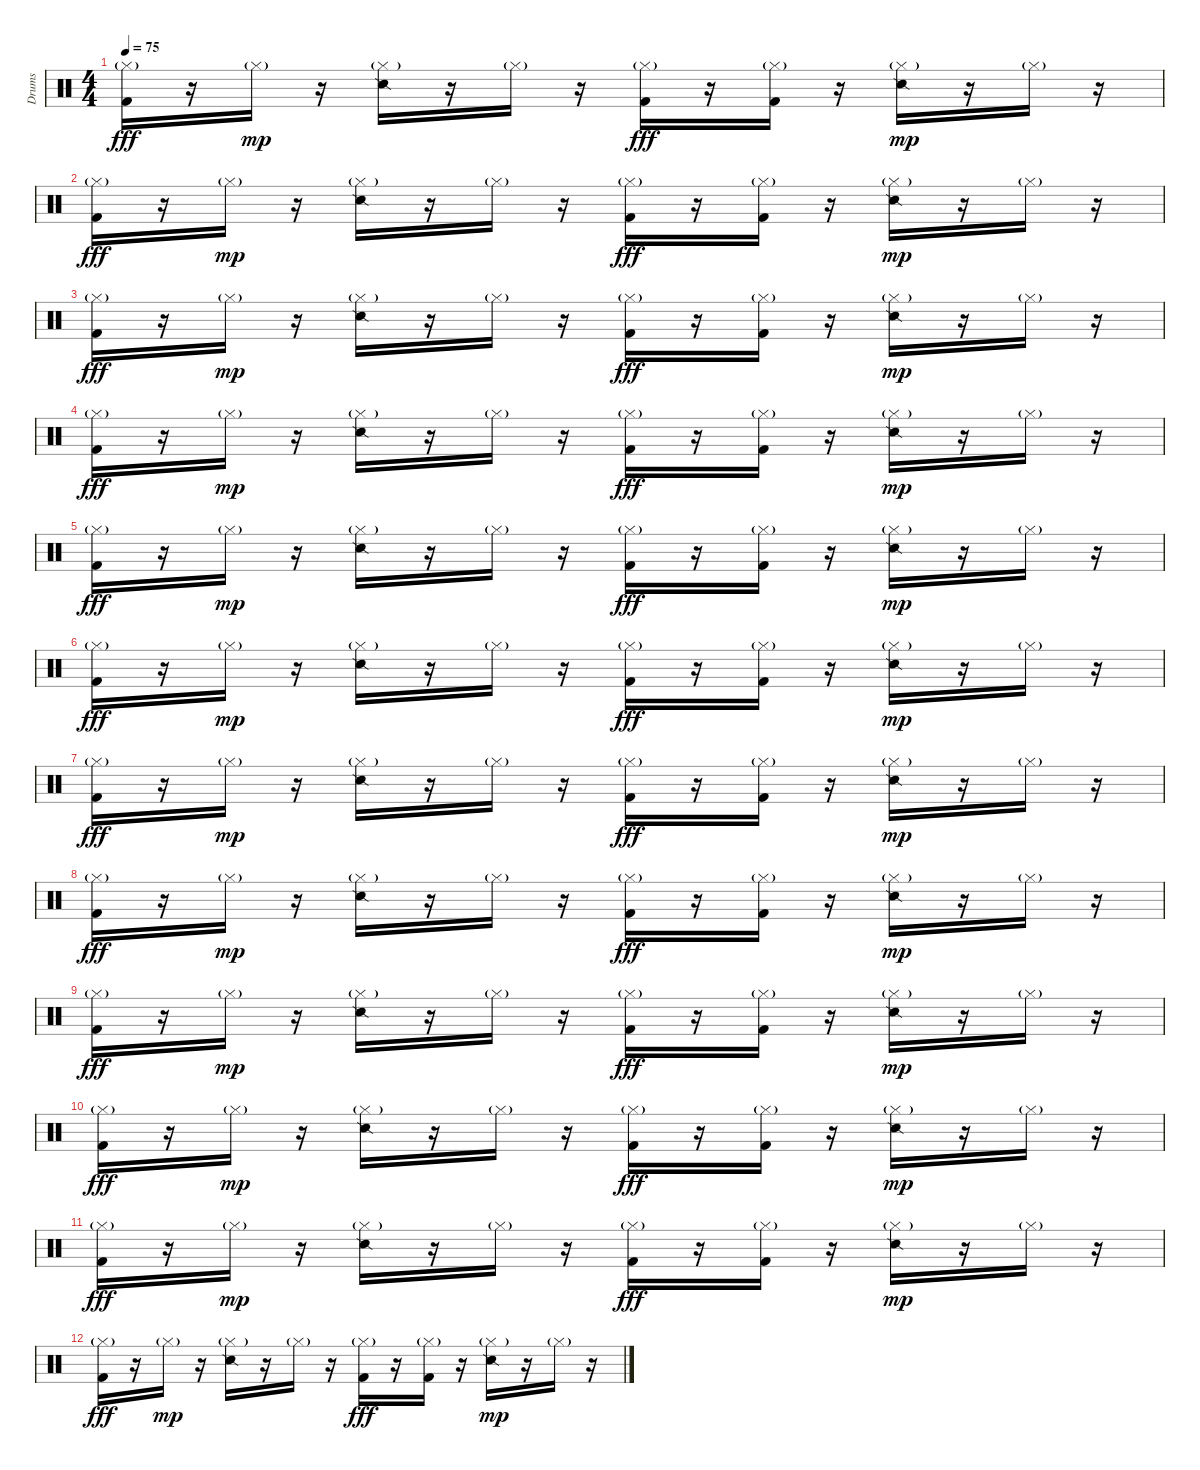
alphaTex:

\track ("Drums" "Drums") {instrument percussion}
\staff {score}
\articulation defaults
\ts (4 4)
\tempo 75
\clef neutral
\ks c
("Hi-Hat (closed)"{g} "Kick (hit) 2").16{dy fff} r.16 "Hi-Hat (closed)"{g}.16{dy mp} r.16 ("Hi-Hat (closed)"{g} "Snare (side stick) 2").16 r.16 "Hi-Hat (closed)"{g}.16 r.16 ("Hi-Hat (closed)"{g} "Kick (hit) 2").16{dy fff} r.16 ("Hi-Hat (closed)"{g} "Kick (hit) 2").16 r.16 ("Hi-Hat (closed)"{g} "Snare (side stick) 2").16{dy mp} r.16 "Hi-Hat (closed)"{g}.16 r.16 |
("Hi-Hat (closed)"{g} "Kick (hit) 2").16{dy fff} r.16 "Hi-Hat (closed)"{g}.16{dy mp} r.16 ("Hi-Hat (closed)"{g} "Snare (side stick) 2").16 r.16 "Hi-Hat (closed)"{g}.16 r.16 ("Hi-Hat (closed)"{g} "Kick (hit) 2").16{dy fff} r.16 ("Hi-Hat (closed)"{g} "Kick (hit) 2").16 r.16 ("Hi-Hat (closed)"{g} "Snare (side stick) 2").16{dy mp} r.16 "Hi-Hat (closed)"{g}.16 r.16 |
("Hi-Hat (closed)"{g} "Kick (hit) 2").16{dy fff} r.16 "Hi-Hat (closed)"{g}.16{dy mp} r.16 ("Hi-Hat (closed)"{g} "Snare (side stick) 2").16 r.16 "Hi-Hat (closed)"{g}.16 r.16 ("Hi-Hat (closed)"{g} "Kick (hit) 2").16{dy fff} r.16 ("Hi-Hat (closed)"{g} "Kick (hit) 2").16 r.16 ("Hi-Hat (closed)"{g} "Snare (side stick) 2").16{dy mp} r.16 "Hi-Hat (closed)"{g}.16 r.16 |
("Hi-Hat (closed)"{g} "Kick (hit) 2").16{dy fff} r.16 "Hi-Hat (closed)"{g}.16{dy mp} r.16 ("Hi-Hat (closed)"{g} "Snare (side stick) 2").16 r.16 "Hi-Hat (closed)"{g}.16 r.16 ("Hi-Hat (closed)"{g} "Kick (hit) 2").16{dy fff} r.16 ("Hi-Hat (closed)"{g} "Kick (hit) 2").16 r.16 ("Hi-Hat (closed)"{g} "Snare (side stick) 2").16{dy mp} r.16 "Hi-Hat (closed)"{g}.16 r.16 |
("Hi-Hat (closed)"{g} "Kick (hit) 2").16{dy fff} r.16 "Hi-Hat (closed)"{g}.16{dy mp} r.16 ("Hi-Hat (closed)"{g} "Snare (side stick) 2").16 r.16 "Hi-Hat (closed)"{g}.16 r.16 ("Hi-Hat (closed)"{g} "Kick (hit) 2").16{dy fff} r.16 ("Hi-Hat (closed)"{g} "Kick (hit) 2").16 r.16 ("Hi-Hat (closed)"{g} "Snare (side stick) 2").16{dy mp} r.16 "Hi-Hat (closed)"{g}.16 r.16 |
("Hi-Hat (closed)"{g} "Kick (hit) 2").16{dy fff} r.16 "Hi-Hat (closed)"{g}.16{dy mp} r.16 ("Hi-Hat (closed)"{g} "Snare (side stick) 2").16 r.16 "Hi-Hat (closed)"{g}.16 r.16 ("Hi-Hat (closed)"{g} "Kick (hit) 2").16{dy fff} r.16 ("Hi-Hat (closed)"{g} "Kick (hit) 2").16 r.16 ("Hi-Hat (closed)"{g} "Snare (side stick) 2").16{dy mp} r.16 "Hi-Hat (closed)"{g}.16 r.16 |
("Hi-Hat (closed)"{g} "Kick (hit) 2").16{dy fff} r.16 "Hi-Hat (closed)"{g}.16{dy mp} r.16 ("Hi-Hat (closed)"{g} "Snare (side stick) 2").16 r.16 "Hi-Hat (closed)"{g}.16 r.16 ("Hi-Hat (closed)"{g} "Kick (hit) 2").16{dy fff} r.16 ("Hi-Hat (closed)"{g} "Kick (hit) 2").16 r.16 ("Hi-Hat (closed)"{g} "Snare (side stick) 2").16{dy mp} r.16 "Hi-Hat (closed)"{g}.16 r.16 |
("Hi-Hat (closed)"{g} "Kick (hit) 2").16{dy fff} r.16 "Hi-Hat (closed)"{g}.16{dy mp} r.16 ("Hi-Hat (closed)"{g} "Snare (side stick) 2").16 r.16 "Hi-Hat (closed)"{g}.16 r.16 ("Hi-Hat (closed)"{g} "Kick (hit) 2").16{dy fff} r.16 ("Hi-Hat (closed)"{g} "Kick (hit) 2").16 r.16 ("Hi-Hat (closed)"{g} "Snare (side stick) 2").16{dy mp} r.16 "Hi-Hat (closed)"{g}.16 r.16 |
("Hi-Hat (closed)"{g} "Kick (hit) 2").16{dy fff} r.16 "Hi-Hat (closed)"{g}.16{dy mp} r.16 ("Hi-Hat (closed)"{g} "Snare (side stick) 2").16 r.16 "Hi-Hat (closed)"{g}.16 r.16 ("Hi-Hat (closed)"{g} "Kick (hit) 2").16{dy fff} r.16 ("Hi-Hat (closed)"{g} "Kick (hit) 2").16 r.16 ("Hi-Hat (closed)"{g} "Snare (side stick) 2").16{dy mp} r.16 "Hi-Hat (closed)"{g}.16 r.16 |
("Hi-Hat (closed)"{g} "Kick (hit) 2").16{dy fff} r.16 "Hi-Hat (closed)"{g}.16{dy mp} r.16 ("Hi-Hat (closed)"{g} "Snare (side stick) 2").16 r.16 "Hi-Hat (closed)"{g}.16 r.16 ("Hi-Hat (closed)"{g} "Kick (hit) 2").16{dy fff} r.16 ("Hi-Hat (closed)"{g} "Kick (hit) 2").16 r.16 ("Hi-Hat (closed)"{g} "Snare (side stick) 2").16{dy mp} r.16 "Hi-Hat (closed)"{g}.16 r.16 |
("Hi-Hat (closed)"{g} "Kick (hit) 2").16{dy fff} r.16 "Hi-Hat (closed)"{g}.16{dy mp} r.16 ("Hi-Hat (closed)"{g} "Snare (side stick) 2").16 r.16 "Hi-Hat (closed)"{g}.16 r.16 ("Hi-Hat (closed)"{g} "Kick (hit) 2").16{dy fff} r.16 ("Hi-Hat (closed)"{g} "Kick (hit) 2").16 r.16 ("Hi-Hat (closed)"{g} "Snare (side stick) 2").16{dy mp} r.16 "Hi-Hat (closed)"{g}.16 r.16 |
("Hi-Hat (closed)"{g} "Kick (hit) 2").16{dy fff} r.16 "Hi-Hat (closed)"{g}.16{dy mp} r.16 ("Hi-Hat (closed)"{g} "Snare (side stick) 2").16 r.16 "Hi-Hat (closed)"{g}.16 r.16 ("Hi-Hat (closed)"{g} "Kick (hit) 2").16{dy fff} r.16 ("Hi-Hat (closed)"{g} "Kick (hit) 2").16 r.16 ("Hi-Hat (closed)"{g} "Snare (side stick) 2").16{dy mp} r.16 "Hi-Hat (closed)"{g}.16 r.16
